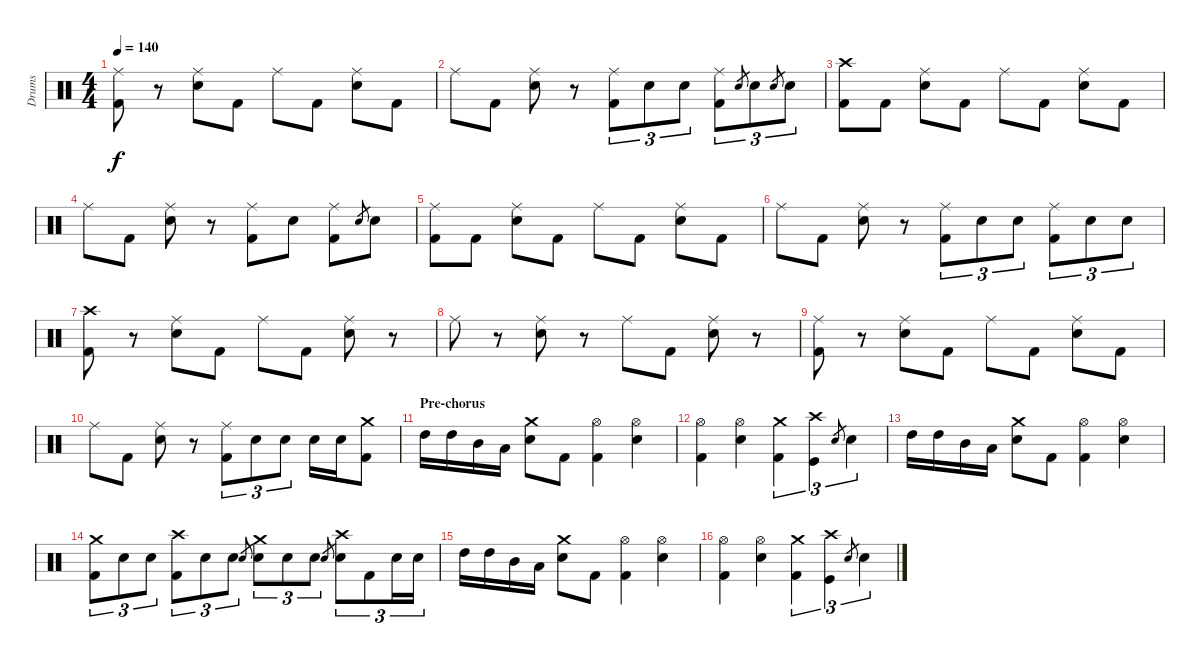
\track ("Drums" "Drums") {instrument percussion}
\staff {score}
\articulation defaults
\ts (4 4)
\tempo 140
\clef neutral
\ks c
("Ride (middle)" "Kick (hit) 2").8{dy f} r.8 ("Ride (middle)" "Snare (hit) 2").8 "Kick (hit) 2".8 "Ride (middle)".8 "Kick (hit) 2".8 ("Ride (middle)" "Snare (hit) 2").8 "Kick (hit) 2".8 |
"Ride (middle)".8 "Kick (hit) 2".8 ("Ride (middle)" "Snare (hit) 2").8 r.8 ("Ride (middle)" "Kick (hit) 2").8{tu (3 2)} "Snare (hit) 2".8{tu (3 2)} "Snare (hit) 2".8{tu (3 2)} ("Ride (middle)" "Kick (hit) 2").8{tu (3 2)} "Snare (hit) 2".8{gr} "Snare (hit) 2".8{tu (3 2)} "Snare (hit) 2".8{gr} "Snare (hit) 2".8{tu (3 2)} |
("Crash high (hit)" "Kick (hit) 2").8 "Kick (hit) 2".8 ("Ride (middle)" "Snare (hit) 2").8 "Kick (hit) 2".8 "Ride (middle)".8 "Kick (hit) 2".8 ("Ride (middle)" "Snare (hit) 2").8 "Kick (hit) 2".8 |
"Ride (middle)".8 "Kick (hit) 2".8 ("Ride (middle)" "Snare (hit) 2").8 r.8 ("Ride (middle)" "Kick (hit) 2").8 "Snare (hit) 2".8 ("Ride (middle)" "Kick (hit) 2").8 "Snare (hit) 2".8{gr} "Snare (hit) 2".8 |
("Ride (middle)" "Kick (hit) 2").8 "Kick (hit) 2".8 ("Ride (middle)" "Snare (hit) 2").8 "Kick (hit) 2".8 "Ride (middle)".8 "Kick (hit) 2".8 ("Ride (middle)" "Snare (hit) 2").8 "Kick (hit) 2".8 |
"Ride (middle)".8 "Kick (hit) 2".8 ("Ride (middle)" "Snare (hit) 2").8 r.8 ("Ride (middle)" "Kick (hit) 2").8{tu (3 2)} "Snare (hit) 2".8{tu (3 2)} "Snare (hit) 2".8{tu (3 2)} ("Ride (middle)" "Kick (hit) 2").8{tu (3 2)} "Snare (hit) 2".8{tu (3 2)} "Snare (hit) 2".8{tu (3 2)} |
("Crash high (hit)" "Kick (hit) 2").8 r.8 ("Ride (middle)" "Snare (hit) 2").8 "Kick (hit) 2".8 "Ride (middle)".8 "Kick (hit) 2".8 ("Ride (middle)" "Snare (hit) 2").8 r.8 |
"Ride (middle)".8 r.8 ("Ride (middle)" "Snare (hit) 2").8 r.8 "Ride (middle)".8 "Kick (hit) 2".8 ("Ride (middle)" "Snare (hit) 2").8 r.8 |
("Ride (middle)" "Kick (hit) 2").8 r.8 ("Ride (middle)" "Snare (hit) 2").8 "Kick (hit) 2".8 "Ride (middle)".8 "Kick (hit) 2".8 ("Ride (middle)" "Snare (hit) 2").8 "Kick (hit) 2".8 |
"Ride (middle)".8 "Kick (hit) 2".8 ("Ride (middle)" "Snare (hit) 2").8 r.8 ("Ride (middle)" "Kick (hit) 2").8{tu (3 2)} "Snare (hit) 2".8{tu (3 2)} "Snare (hit) 2".8{tu (3 2)} "Snare (hit) 2".16 "Snare (hit) 2".16 ("Crash medium (hit)" "Kick (hit) 2").8 |
\section ("" "Pre-chorus")
"High Tom (hit)".16 "High Tom (hit)".16 "Mid Tom (hit)".16 "Low Tom (hit)".16 ("Crash medium (hit)" "Snare (hit) 2").8 "Kick (hit) 2".8 ("Hi-Hat (open)" "Kick (hit) 2").4 ("Hi-Hat (open)" "Snare (hit) 2").4 |
("Hi-Hat (open)" "Kick (hit) 2").4 ("Hi-Hat (open)" "Snare (hit) 2").4 ("Crash medium (hit)" "Kick (hit) 2").4{tu (3 2)} ("Crash high (hit)" "Kick (hit)").4{tu (3 2)} "Snare (hit) 2".8{gr} "Snare (hit) 2".4{tu (3 2)} |
"High Tom (hit)".16 "High Tom (hit)".16 "Mid Tom (hit)".16 "Low Tom (hit)".16 ("Crash medium (hit)" "Snare (hit) 2").8 "Kick (hit) 2".8 ("Hi-Hat (open)" "Kick (hit) 2").4 ("Hi-Hat (open)" "Snare (hit) 2").4 |
("Crash medium (hit)" "Kick (hit) 2").8{tu (3 2)} "Snare (hit) 2".8{tu (3 2)} "Snare (hit) 2".8{tu (3 2)} ("Crash high (hit)" "Kick (hit) 2").8{tu (3 2)} "Snare (hit) 2".8{tu (3 2)} "Snare (hit) 2".8{tu (3 2)} "Snare (hit) 2".8{gr} ("Crash medium (hit)" "Snare (hit) 2").8{tu (3 2)} "Snare (hit) 2".8{tu (3 2)} "Snare (hit) 2".8{tu (3 2)} "Snare (hit) 2".8{gr} ("Crash high (hit)" "Snare (hit) 2").8{tu (3 2)} "Kick (hit) 2".8{tu (3 2)} "Snare (hit) 2".16{tu (3 2)} "Snare (hit) 2".16{tu (3 2)} |
"High Tom (hit)".16 "High Tom (hit)".16 "Mid Tom (hit)".16 "Low Tom (hit)".16 ("Crash medium (hit)" "Snare (hit) 2").8 "Kick (hit) 2".8 ("Hi-Hat (open)" "Kick (hit) 2").4 ("Hi-Hat (open)" "Snare (hit) 2").4 |
("Hi-Hat (open)" "Kick (hit) 2").4 ("Hi-Hat (open)" "Snare (hit) 2").4 ("Crash medium (hit)" "Kick (hit) 2").4{tu (3 2)} ("Crash high (hit)" "Kick (hit)").4{tu (3 2)} "Snare (hit) 2".8{gr} "Snare (hit) 2".4{tu (3 2)}
